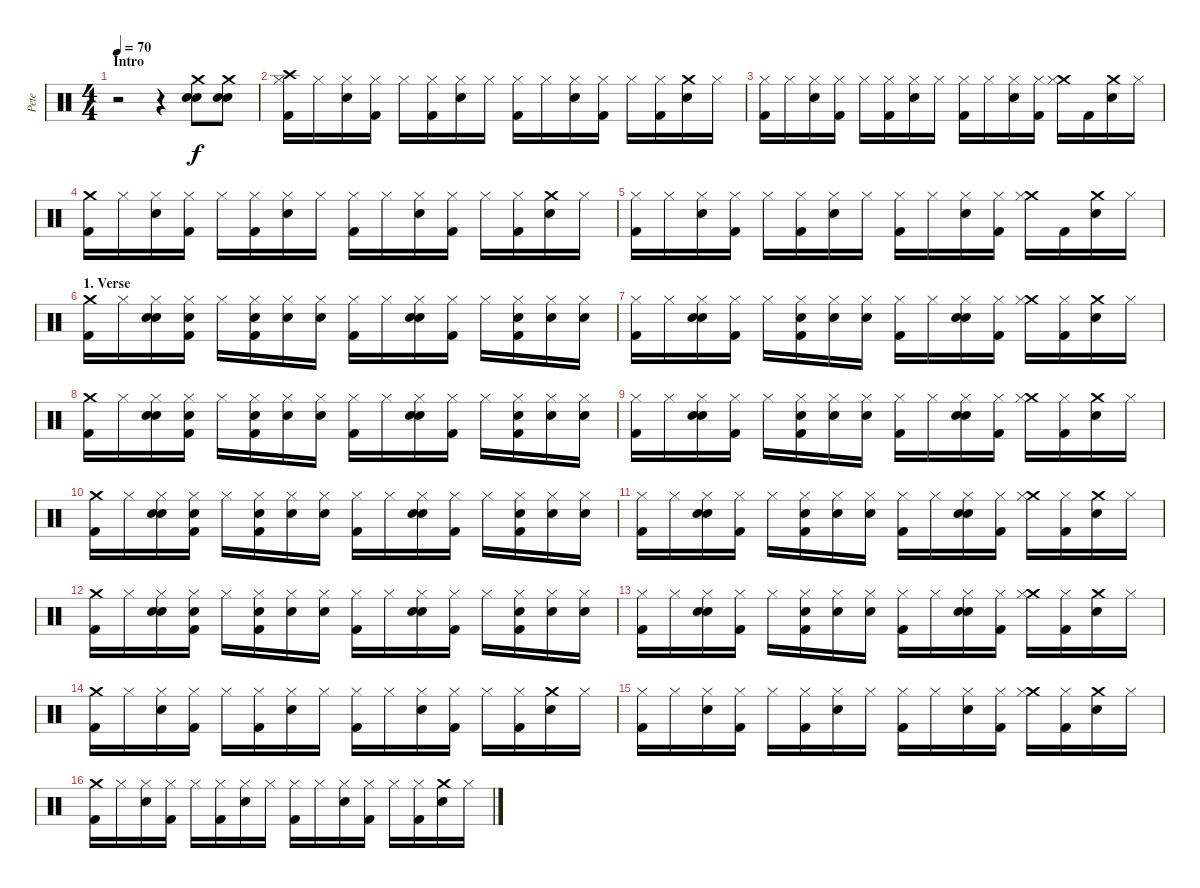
\track ("Pete" "Pete") {instrument percussion}
\staff {score}
\articulation defaults
\ts (4 4)
\section ("" "Intro")
\tempo 70
\clef neutral
\ks c
r.2{dy f} r.4 ("Crash medium (hit)" "Snare (hit) 2" "Hand Clap (hit)").8 ("Crash medium (hit)" "Snare (hit) 2" "Hand Clap (hit)").8 |
("Crash high (hit)" "Hi-Hat (closed)" "Kick (hit) 2").16 "Hi-Hat (closed)".16 ("Hi-Hat (closed)" "Snare (hit) 2").16 ("Hi-Hat (closed)" "Kick (hit) 2").16 "Hi-Hat (closed)".16 ("Hi-Hat (closed)" "Kick (hit) 2").16 ("Hi-Hat (closed)" "Snare (hit) 2").16 "Hi-Hat (closed)".16 ("Hi-Hat (closed)" "Kick (hit) 2").16 "Hi-Hat (closed)".16 ("Hi-Hat (closed)" "Snare (hit) 2").16 ("Hi-Hat (closed)" "Kick (hit) 2").16 "Hi-Hat (closed)".16 ("Hi-Hat (closed)" "Kick (hit) 2").16 ("Crash medium (hit)" "Snare (hit) 2").16 "Hi-Hat (closed)".16 |
("Hi-Hat (closed)" "Kick (hit) 2").16 "Hi-Hat (closed)".16 ("Hi-Hat (closed)" "Snare (hit) 2").16 ("Hi-Hat (closed)" "Kick (hit) 2").16 "Hi-Hat (closed)".16 ("Hi-Hat (closed)" "Kick (hit) 2").16 ("Hi-Hat (closed)" "Snare (hit) 2").16 "Hi-Hat (closed)".16 ("Hi-Hat (closed)" "Kick (hit) 2").16 "Hi-Hat (closed)".16 ("Hi-Hat (closed)" "Snare (hit) 2").16 ("Hi-Hat (closed)" "Kick (hit) 2").16 ("Crash medium (hit)" "Hi-Hat (closed)").16 "Kick (hit) 2".16 ("Crash medium (hit)" "Snare (hit) 2").16 "Hi-Hat (closed)".16 |
("Crash medium (hit)" "Kick (hit) 2").16 "Hi-Hat (closed)".16 ("Hi-Hat (closed)" "Snare (hit) 2").16 ("Hi-Hat (closed)" "Kick (hit) 2").16 "Hi-Hat (closed)".16 ("Hi-Hat (closed)" "Kick (hit) 2").16 ("Hi-Hat (closed)" "Snare (hit) 2").16 "Hi-Hat (closed)".16 ("Hi-Hat (closed)" "Kick (hit) 2").16 "Hi-Hat (closed)".16 ("Hi-Hat (closed)" "Snare (hit) 2").16 ("Hi-Hat (closed)" "Kick (hit) 2").16 "Hi-Hat (closed)".16 ("Hi-Hat (closed)" "Kick (hit) 2").16 ("Crash medium (hit)" "Snare (hit) 2").16 "Hi-Hat (closed)".16 |
("Hi-Hat (closed)" "Kick (hit) 2").16 "Hi-Hat (closed)".16 ("Hi-Hat (closed)" "Snare (hit) 2").16 ("Hi-Hat (closed)" "Kick (hit) 2").16 "Hi-Hat (closed)".16 ("Hi-Hat (closed)" "Kick (hit) 2").16 ("Hi-Hat (closed)" "Snare (hit) 2").16 "Hi-Hat (closed)".16 ("Hi-Hat (closed)" "Kick (hit) 2").16 "Hi-Hat (closed)".16 ("Hi-Hat (closed)" "Snare (hit) 2").16 ("Hi-Hat (closed)" "Kick (hit) 2").16 ("Crash medium (hit)" "Hi-Hat (closed)").16 "Kick (hit) 2".16 ("Crash medium (hit)" "Snare (hit) 2").16 "Hi-Hat (closed)".16 |
\section ("" "1. Verse")
("Crash medium (hit)" "Kick (hit) 2").16 "Hi-Hat (closed)".16 ("Hand Clap (hit)" "Hi-Hat (closed)" "Snare (hit) 2").16 ("Hand Clap (hit)" "Hi-Hat (closed)" "Kick (hit) 2").16 "Hi-Hat (closed)".16 ("Hand Clap (hit)" "Hi-Hat (closed)" "Kick (hit) 2").16 ("Hi-Hat (closed)" "Snare (hit) 2").16 ("Hand Clap (hit)" "Hi-Hat (closed)").16 ("Hi-Hat (closed)" "Kick (hit) 2").16 "Hi-Hat (closed)".16 ("Hand Clap (hit)" "Hi-Hat (closed)" "Snare (hit) 2").16 ("Hi-Hat (closed)" "Kick (hit) 2").16 "Hi-Hat (closed)".16 ("Hand Clap (hit)" "Hi-Hat (closed)" "Kick (hit) 2").16 ("Hi-Hat (closed)" "Snare (hit) 2").16 ("Hand Clap (hit)" "Hi-Hat (closed)").16 |
("Hi-Hat (closed)" "Kick (hit) 2").16 "Hi-Hat (closed)".16 ("Hand Clap (hit)" "Hi-Hat (closed)" "Snare (hit) 2").16 ("Hi-Hat (closed)" "Kick (hit) 2").16 "Hi-Hat (closed)".16 ("Hand Clap (hit)" "Hi-Hat (closed)" "Kick (hit) 2").16 ("Hi-Hat (closed)" "Snare (hit) 2").16 ("Hand Clap (hit)" "Hi-Hat (closed)").16 ("Hi-Hat (closed)" "Kick (hit) 2").16 "Hi-Hat (closed)".16 ("Hand Clap (hit)" "Hi-Hat (closed)" "Snare (hit) 2").16 ("Hi-Hat (closed)" "Kick (hit) 2").16 ("Crash medium (hit)" "Hi-Hat (closed)").16 ("Hi-Hat (closed)" "Kick (hit) 2").16 ("Crash medium (hit)" "Snare (hit) 2").16 "Hi-Hat (closed)".16 |
("Crash medium (hit)" "Kick (hit) 2").16 "Hi-Hat (closed)".16 ("Hand Clap (hit)" "Hi-Hat (closed)" "Snare (hit) 2").16 ("Hand Clap (hit)" "Hi-Hat (closed)" "Kick (hit) 2").16 "Hi-Hat (closed)".16 ("Hand Clap (hit)" "Hi-Hat (closed)" "Kick (hit) 2").16 ("Hi-Hat (closed)" "Snare (hit) 2").16 ("Hand Clap (hit)" "Hi-Hat (closed)").16 ("Hi-Hat (closed)" "Kick (hit) 2").16 "Hi-Hat (closed)".16 ("Hand Clap (hit)" "Hi-Hat (closed)" "Snare (hit) 2").16 ("Hi-Hat (closed)" "Kick (hit) 2").16 "Hi-Hat (closed)".16 ("Hand Clap (hit)" "Hi-Hat (closed)" "Kick (hit) 2").16 ("Hi-Hat (closed)" "Snare (hit) 2").16 ("Hand Clap (hit)" "Hi-Hat (closed)").16 |
("Hi-Hat (closed)" "Kick (hit) 2").16 "Hi-Hat (closed)".16 ("Hand Clap (hit)" "Hi-Hat (closed)" "Snare (hit) 2").16 ("Hi-Hat (closed)" "Kick (hit) 2").16 "Hi-Hat (closed)".16 ("Hand Clap (hit)" "Hi-Hat (closed)" "Kick (hit) 2").16 ("Hi-Hat (closed)" "Snare (hit) 2").16 ("Hand Clap (hit)" "Hi-Hat (closed)").16 ("Hi-Hat (closed)" "Kick (hit) 2").16 "Hi-Hat (closed)".16 ("Hand Clap (hit)" "Hi-Hat (closed)" "Snare (hit) 2").16 ("Hi-Hat (closed)" "Kick (hit) 2").16 ("Crash medium (hit)" "Hi-Hat (closed)").16 ("Hi-Hat (closed)" "Kick (hit) 2").16 ("Crash medium (hit)" "Snare (hit) 2").16 "Hi-Hat (closed)".16 |
("Crash medium (hit)" "Kick (hit) 2").16 "Hi-Hat (closed)".16 ("Hand Clap (hit)" "Hi-Hat (closed)" "Snare (hit) 2").16 ("Hand Clap (hit)" "Hi-Hat (closed)" "Kick (hit) 2").16 "Hi-Hat (closed)".16 ("Hand Clap (hit)" "Hi-Hat (closed)" "Kick (hit) 2").16 ("Hi-Hat (closed)" "Snare (hit) 2").16 ("Hand Clap (hit)" "Hi-Hat (closed)").16 ("Hi-Hat (closed)" "Kick (hit) 2").16 "Hi-Hat (closed)".16 ("Hand Clap (hit)" "Hi-Hat (closed)" "Snare (hit) 2").16 ("Hi-Hat (closed)" "Kick (hit) 2").16 "Hi-Hat (closed)".16 ("Hand Clap (hit)" "Hi-Hat (closed)" "Kick (hit) 2").16 ("Hi-Hat (closed)" "Snare (hit) 2").16 ("Hand Clap (hit)" "Hi-Hat (closed)").16 |
("Hi-Hat (closed)" "Kick (hit) 2").16 "Hi-Hat (closed)".16 ("Hand Clap (hit)" "Hi-Hat (closed)" "Snare (hit) 2").16 ("Hi-Hat (closed)" "Kick (hit) 2").16 "Hi-Hat (closed)".16 ("Hand Clap (hit)" "Hi-Hat (closed)" "Kick (hit) 2").16 ("Hi-Hat (closed)" "Snare (hit) 2").16 ("Hand Clap (hit)" "Hi-Hat (closed)").16 ("Hi-Hat (closed)" "Kick (hit) 2").16 "Hi-Hat (closed)".16 ("Hand Clap (hit)" "Hi-Hat (closed)" "Snare (hit) 2").16 ("Hi-Hat (closed)" "Kick (hit) 2").16 ("Crash medium (hit)" "Hi-Hat (closed)").16 ("Hi-Hat (closed)" "Kick (hit) 2").16 ("Crash medium (hit)" "Snare (hit) 2").16 "Hi-Hat (closed)".16 |
("Crash medium (hit)" "Kick (hit) 2").16 "Hi-Hat (closed)".16 ("Hand Clap (hit)" "Hi-Hat (closed)" "Snare (hit) 2").16 ("Hand Clap (hit)" "Hi-Hat (closed)" "Kick (hit) 2").16 "Hi-Hat (closed)".16 ("Hand Clap (hit)" "Hi-Hat (closed)" "Kick (hit) 2").16 ("Hi-Hat (closed)" "Snare (hit) 2").16 ("Hand Clap (hit)" "Hi-Hat (closed)").16 ("Hi-Hat (closed)" "Kick (hit) 2").16 "Hi-Hat (closed)".16 ("Hand Clap (hit)" "Hi-Hat (closed)" "Snare (hit) 2").16 ("Hi-Hat (closed)" "Kick (hit) 2").16 "Hi-Hat (closed)".16 ("Hand Clap (hit)" "Hi-Hat (closed)" "Kick (hit) 2").16 ("Hi-Hat (closed)" "Snare (hit) 2").16 ("Hand Clap (hit)" "Hi-Hat (closed)").16 |
("Hi-Hat (closed)" "Kick (hit) 2").16 "Hi-Hat (closed)".16 ("Hand Clap (hit)" "Hi-Hat (closed)" "Snare (hit) 2").16 ("Hi-Hat (closed)" "Kick (hit) 2").16 "Hi-Hat (closed)".16 ("Hand Clap (hit)" "Hi-Hat (closed)" "Kick (hit) 2").16 ("Hi-Hat (closed)" "Snare (hit) 2").16 ("Hand Clap (hit)" "Hi-Hat (closed)").16 ("Hi-Hat (closed)" "Kick (hit) 2").16 "Hi-Hat (closed)".16 ("Hand Clap (hit)" "Hi-Hat (closed)" "Snare (hit) 2").16 ("Hi-Hat (closed)" "Kick (hit) 2").16 ("Crash medium (hit)" "Hi-Hat (closed)").16 ("Hi-Hat (closed)" "Kick (hit) 2").16 ("Crash medium (hit)" "Snare (hit) 2").16 "Hi-Hat (closed)".16 |
("Crash medium (hit)" "Kick (hit) 2").16 "Hi-Hat (closed)".16 ("Hi-Hat (closed)" "Snare (hit) 2").16 ("Hi-Hat (closed)" "Kick (hit) 2").16 "Hi-Hat (closed)".16 ("Hi-Hat (closed)" "Kick (hit) 2").16 ("Hi-Hat (closed)" "Snare (hit) 2").16 "Hi-Hat (closed)".16 ("Hi-Hat (closed)" "Kick (hit) 2").16 "Hi-Hat (closed)".16 ("Hi-Hat (closed)" "Snare (hit) 2").16 ("Hi-Hat (closed)" "Kick (hit) 2").16 "Hi-Hat (closed)".16 ("Hi-Hat (closed)" "Kick (hit) 2").16 ("Crash medium (hit)" "Snare (hit) 2").16 "Hi-Hat (closed)".16 |
("Hi-Hat (closed)" "Kick (hit) 2").16 "Hi-Hat (closed)".16 ("Hi-Hat (closed)" "Snare (hit) 2").16 ("Hi-Hat (closed)" "Kick (hit) 2").16 "Hi-Hat (closed)".16 ("Hi-Hat (closed)" "Kick (hit) 2").16 ("Hi-Hat (closed)" "Snare (hit) 2").16 "Hi-Hat (closed)".16 ("Hi-Hat (closed)" "Kick (hit) 2").16 "Hi-Hat (closed)".16 ("Hi-Hat (closed)" "Snare (hit) 2").16 ("Hi-Hat (closed)" "Kick (hit) 2").16 ("Crash medium (hit)" "Hi-Hat (closed)").16 ("Hi-Hat (closed)" "Kick (hit) 2").16 ("Crash medium (hit)" "Snare (hit) 2").16 "Hi-Hat (closed)".16 |
("Crash medium (hit)" "Kick (hit) 2").16 "Hi-Hat (closed)".16 ("Hi-Hat (closed)" "Snare (hit) 2").16 ("Hi-Hat (closed)" "Kick (hit) 2").16 "Hi-Hat (closed)".16 ("Hi-Hat (closed)" "Kick (hit) 2").16 ("Hi-Hat (closed)" "Snare (hit) 2").16 "Hi-Hat (closed)".16 ("Hi-Hat (closed)" "Kick (hit) 2").16 "Hi-Hat (closed)".16 ("Hi-Hat (closed)" "Snare (hit) 2").16 ("Hi-Hat (closed)" "Kick (hit) 2").16 "Hi-Hat (closed)".16 ("Hi-Hat (closed)" "Kick (hit) 2").16 ("Crash medium (hit)" "Snare (hit) 2").16 "Hi-Hat (closed)".16
